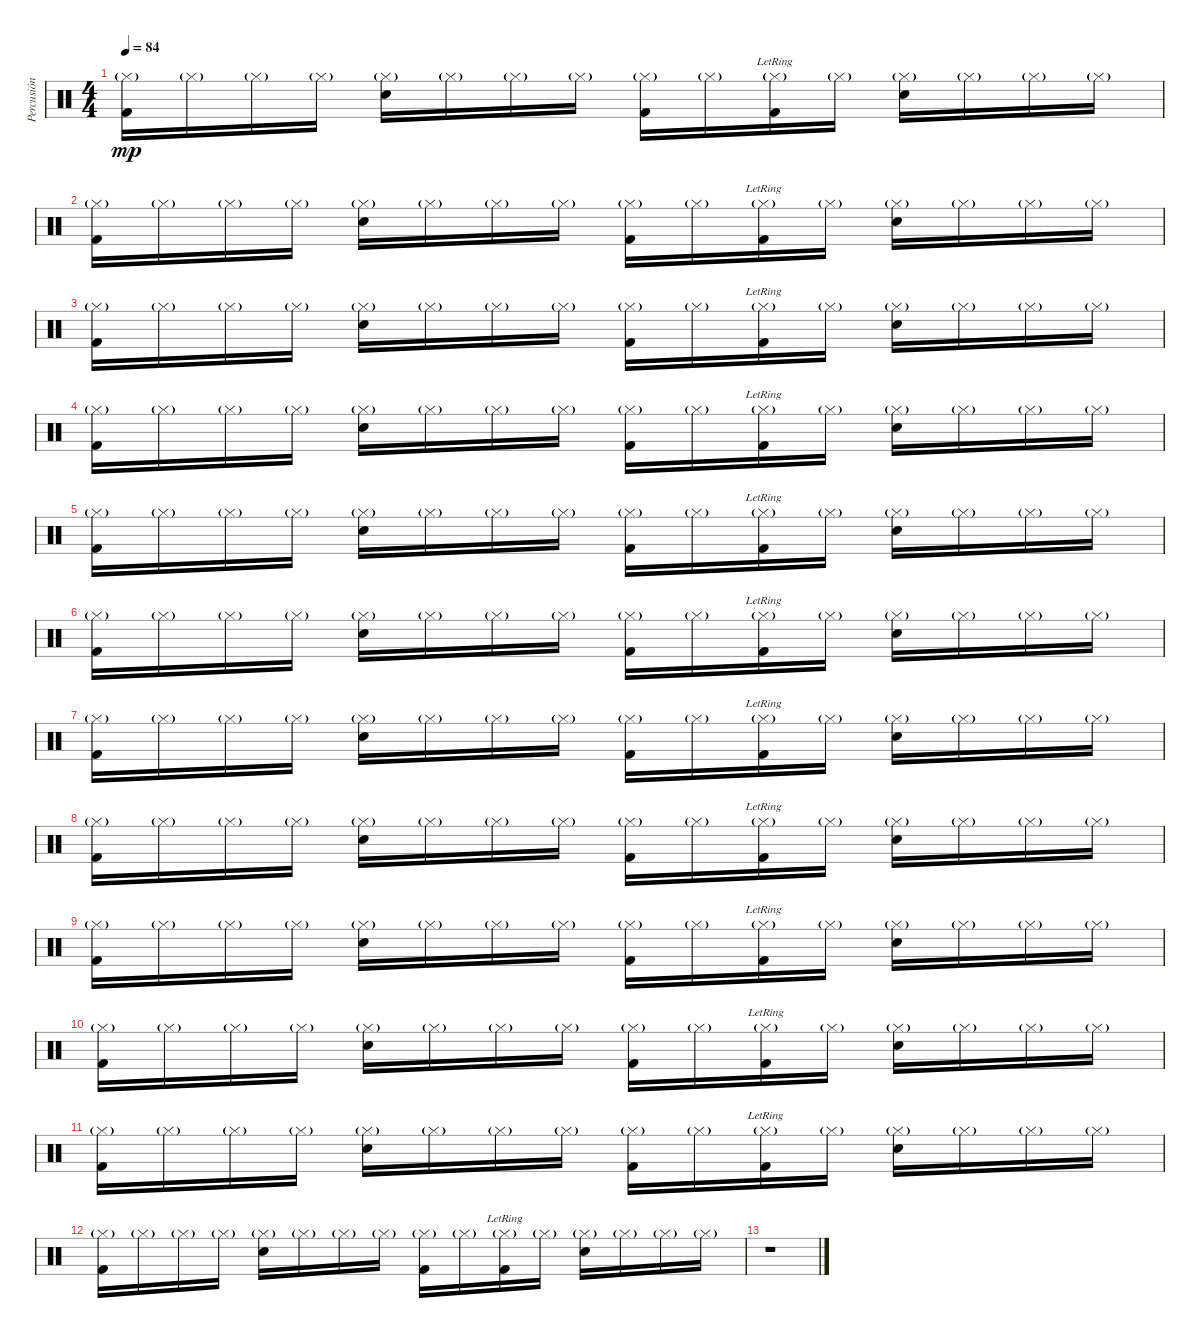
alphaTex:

\track ("Percusión 2" "Percusión ") {instrument percussion}
\staff {score}
\articulation defaults
\ts (4 4)
\tempo 84
\clef neutral
\ks c
("Hi-Hat (closed)"{g} "Kick (hit) 2").16{dy mp} "Hi-Hat (closed)"{g}.16 "Hi-Hat (closed)"{g}.16 "Hi-Hat (closed)"{g}.16 ("Hi-Hat (closed)"{g} "Snare (hit) 2").16 "Hi-Hat (closed)"{g}.16 "Hi-Hat (closed)"{g}.16 "Hi-Hat (closed)"{g}.16 ("Hi-Hat (closed)"{g} "Kick (hit) 2").16 "Hi-Hat (closed)"{g}.16 ("Hi-Hat (closed)"{g} "Kick (hit) 2"{lr}).16 "Hi-Hat (closed)"{g}.16 ("Hi-Hat (closed)"{g} "Snare (hit) 2").16 "Hi-Hat (closed)"{g}.16 "Hi-Hat (closed)"{g}.16 "Hi-Hat (closed)"{g}.16 |
("Hi-Hat (closed)"{g} "Kick (hit) 2").16 "Hi-Hat (closed)"{g}.16 "Hi-Hat (closed)"{g}.16 "Hi-Hat (closed)"{g}.16 ("Hi-Hat (closed)"{g} "Snare (hit) 2").16 "Hi-Hat (closed)"{g}.16 "Hi-Hat (closed)"{g}.16 "Hi-Hat (closed)"{g}.16 ("Hi-Hat (closed)"{g} "Kick (hit) 2").16 "Hi-Hat (closed)"{g}.16 ("Hi-Hat (closed)"{g} "Kick (hit) 2"{lr}).16 "Hi-Hat (closed)"{g}.16 ("Hi-Hat (closed)"{g} "Snare (hit) 2").16 "Hi-Hat (closed)"{g}.16 "Hi-Hat (closed)"{g}.16 "Hi-Hat (closed)"{g}.16 |
("Hi-Hat (closed)"{g} "Kick (hit) 2").16 "Hi-Hat (closed)"{g}.16 "Hi-Hat (closed)"{g}.16 "Hi-Hat (closed)"{g}.16 ("Hi-Hat (closed)"{g} "Snare (hit) 2").16 "Hi-Hat (closed)"{g}.16 "Hi-Hat (closed)"{g}.16 "Hi-Hat (closed)"{g}.16 ("Hi-Hat (closed)"{g} "Kick (hit) 2").16 "Hi-Hat (closed)"{g}.16 ("Hi-Hat (closed)"{g} "Kick (hit) 2"{lr}).16 "Hi-Hat (closed)"{g}.16 ("Hi-Hat (closed)"{g} "Snare (hit) 2").16 "Hi-Hat (closed)"{g}.16 "Hi-Hat (closed)"{g}.16 "Hi-Hat (closed)"{g}.16 |
("Hi-Hat (closed)"{g} "Kick (hit) 2").16 "Hi-Hat (closed)"{g}.16 "Hi-Hat (closed)"{g}.16 "Hi-Hat (closed)"{g}.16 ("Hi-Hat (closed)"{g} "Snare (hit) 2").16 "Hi-Hat (closed)"{g}.16 "Hi-Hat (closed)"{g}.16 "Hi-Hat (closed)"{g}.16 ("Hi-Hat (closed)"{g} "Kick (hit) 2").16 "Hi-Hat (closed)"{g}.16 ("Hi-Hat (closed)"{g} "Kick (hit) 2"{lr}).16 "Hi-Hat (closed)"{g}.16 ("Hi-Hat (closed)"{g} "Snare (hit) 2").16 "Hi-Hat (closed)"{g}.16 "Hi-Hat (closed)"{g}.16 "Hi-Hat (closed)"{g}.16 |
("Hi-Hat (closed)"{g} "Kick (hit) 2").16 "Hi-Hat (closed)"{g}.16 "Hi-Hat (closed)"{g}.16 "Hi-Hat (closed)"{g}.16 ("Hi-Hat (closed)"{g} "Snare (hit) 2").16 "Hi-Hat (closed)"{g}.16 "Hi-Hat (closed)"{g}.16 "Hi-Hat (closed)"{g}.16 ("Hi-Hat (closed)"{g} "Kick (hit) 2").16 "Hi-Hat (closed)"{g}.16 ("Hi-Hat (closed)"{g} "Kick (hit) 2"{lr}).16 "Hi-Hat (closed)"{g}.16 ("Hi-Hat (closed)"{g} "Snare (hit) 2").16 "Hi-Hat (closed)"{g}.16 "Hi-Hat (closed)"{g}.16 "Hi-Hat (closed)"{g}.16 |
("Hi-Hat (closed)"{g} "Kick (hit) 2").16 "Hi-Hat (closed)"{g}.16 "Hi-Hat (closed)"{g}.16 "Hi-Hat (closed)"{g}.16 ("Hi-Hat (closed)"{g} "Snare (hit) 2").16 "Hi-Hat (closed)"{g}.16 "Hi-Hat (closed)"{g}.16 "Hi-Hat (closed)"{g}.16 ("Hi-Hat (closed)"{g} "Kick (hit) 2").16 "Hi-Hat (closed)"{g}.16 ("Hi-Hat (closed)"{g} "Kick (hit) 2"{lr}).16 "Hi-Hat (closed)"{g}.16 ("Hi-Hat (closed)"{g} "Snare (hit) 2").16 "Hi-Hat (closed)"{g}.16 "Hi-Hat (closed)"{g}.16 "Hi-Hat (closed)"{g}.16 |
("Hi-Hat (closed)"{g} "Kick (hit) 2").16 "Hi-Hat (closed)"{g}.16 "Hi-Hat (closed)"{g}.16 "Hi-Hat (closed)"{g}.16 ("Hi-Hat (closed)"{g} "Snare (hit) 2").16 "Hi-Hat (closed)"{g}.16 "Hi-Hat (closed)"{g}.16 "Hi-Hat (closed)"{g}.16 ("Hi-Hat (closed)"{g} "Kick (hit) 2").16 "Hi-Hat (closed)"{g}.16 ("Hi-Hat (closed)"{g} "Kick (hit) 2"{lr}).16 "Hi-Hat (closed)"{g}.16 ("Hi-Hat (closed)"{g} "Snare (hit) 2").16 "Hi-Hat (closed)"{g}.16 "Hi-Hat (closed)"{g}.16 "Hi-Hat (closed)"{g}.16 |
("Hi-Hat (closed)"{g} "Kick (hit) 2").16 "Hi-Hat (closed)"{g}.16 "Hi-Hat (closed)"{g}.16 "Hi-Hat (closed)"{g}.16 ("Hi-Hat (closed)"{g} "Snare (hit) 2").16 "Hi-Hat (closed)"{g}.16 "Hi-Hat (closed)"{g}.16 "Hi-Hat (closed)"{g}.16 ("Hi-Hat (closed)"{g} "Kick (hit) 2").16 "Hi-Hat (closed)"{g}.16 ("Hi-Hat (closed)"{g} "Kick (hit) 2"{lr}).16 "Hi-Hat (closed)"{g}.16 ("Hi-Hat (closed)"{g} "Snare (hit) 2").16 "Hi-Hat (closed)"{g}.16 "Hi-Hat (closed)"{g}.16 "Hi-Hat (closed)"{g}.16 |
("Hi-Hat (closed)"{g} "Kick (hit) 2").16 "Hi-Hat (closed)"{g}.16 "Hi-Hat (closed)"{g}.16 "Hi-Hat (closed)"{g}.16 ("Hi-Hat (closed)"{g} "Snare (hit) 2").16 "Hi-Hat (closed)"{g}.16 "Hi-Hat (closed)"{g}.16 "Hi-Hat (closed)"{g}.16 ("Hi-Hat (closed)"{g} "Kick (hit) 2").16 "Hi-Hat (closed)"{g}.16 ("Hi-Hat (closed)"{g} "Kick (hit) 2"{lr}).16 "Hi-Hat (closed)"{g}.16 ("Hi-Hat (closed)"{g} "Snare (hit) 2").16 "Hi-Hat (closed)"{g}.16 "Hi-Hat (closed)"{g}.16 "Hi-Hat (closed)"{g}.16 |
("Hi-Hat (closed)"{g} "Kick (hit) 2").16 "Hi-Hat (closed)"{g}.16 "Hi-Hat (closed)"{g}.16 "Hi-Hat (closed)"{g}.16 ("Hi-Hat (closed)"{g} "Snare (hit) 2").16 "Hi-Hat (closed)"{g}.16 "Hi-Hat (closed)"{g}.16 "Hi-Hat (closed)"{g}.16 ("Hi-Hat (closed)"{g} "Kick (hit) 2").16 "Hi-Hat (closed)"{g}.16 ("Hi-Hat (closed)"{g} "Kick (hit) 2"{lr}).16 "Hi-Hat (closed)"{g}.16 ("Hi-Hat (closed)"{g} "Snare (hit) 2").16 "Hi-Hat (closed)"{g}.16 "Hi-Hat (closed)"{g}.16 "Hi-Hat (closed)"{g}.16 |
("Hi-Hat (closed)"{g} "Kick (hit) 2").16 "Hi-Hat (closed)"{g}.16 "Hi-Hat (closed)"{g}.16 "Hi-Hat (closed)"{g}.16 ("Hi-Hat (closed)"{g} "Snare (hit) 2").16 "Hi-Hat (closed)"{g}.16 "Hi-Hat (closed)"{g}.16 "Hi-Hat (closed)"{g}.16 ("Hi-Hat (closed)"{g} "Kick (hit) 2").16 "Hi-Hat (closed)"{g}.16 ("Hi-Hat (closed)"{g} "Kick (hit) 2"{lr}).16 "Hi-Hat (closed)"{g}.16 ("Hi-Hat (closed)"{g} "Snare (hit) 2").16 "Hi-Hat (closed)"{g}.16 "Hi-Hat (closed)"{g}.16 "Hi-Hat (closed)"{g}.16 |
("Hi-Hat (closed)"{g} "Kick (hit) 2").16 "Hi-Hat (closed)"{g}.16 "Hi-Hat (closed)"{g}.16 "Hi-Hat (closed)"{g}.16 ("Hi-Hat (closed)"{g} "Snare (hit) 2").16 "Hi-Hat (closed)"{g}.16 "Hi-Hat (closed)"{g}.16 "Hi-Hat (closed)"{g}.16 ("Hi-Hat (closed)"{g} "Kick (hit) 2").16 "Hi-Hat (closed)"{g}.16 ("Hi-Hat (closed)"{g} "Kick (hit) 2"{lr}).16 "Hi-Hat (closed)"{g}.16 ("Hi-Hat (closed)"{g} "Snare (hit) 2").16 "Hi-Hat (closed)"{g}.16 "Hi-Hat (closed)"{g}.16 "Hi-Hat (closed)"{g}.16 |
r.1
